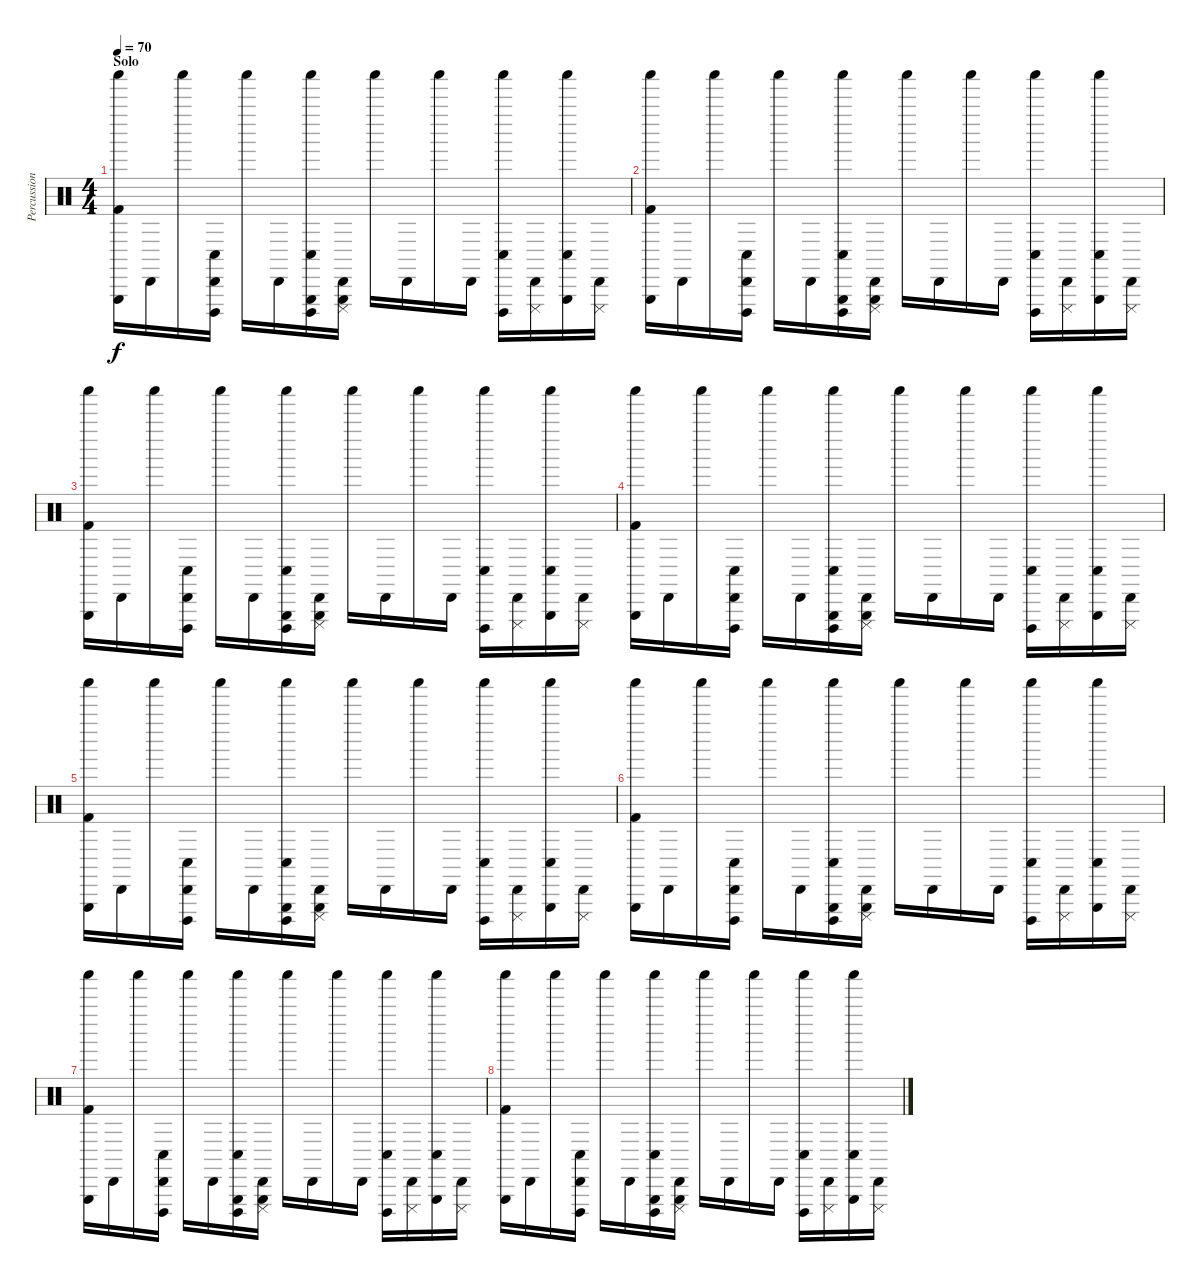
\track ("Percussion" "Percussion") {instrument percussion}
\staff {score}
\articulation defaults
\ts (4 4)
\section ("" "Solo")
\tempo 70
\clef neutral
\ks c
("Triangle (hit)" "Shaker (hit)" "Kick (hit) 2").16{dy f} "Cabasa (hit)".16 "Shaker (hit)".16 ("Cabasa (hit)" "Cuica (open)" "Conga low (hit)").16 "Shaker (hit)".16 "Cabasa (hit)".16 ("Triangle (hit)" "Shaker (hit)" "Cuica (open)" "Conga low (hit)").16 ("Triangle (hit)" "Cabasa (hit)" "Cuica (mute)").16 "Shaker (hit)".16 "Cabasa (hit)".16 "Shaker (hit)".16 "Cabasa (hit)".16 ("Shaker (hit)" "Cuica (open)" "Conga low (hit)").16 ("Cabasa (hit)" "Cuica (mute)").16 ("Triangle (hit)" "Shaker (hit)" "Conga low (hit)").16 ("Cabasa (hit)" "Cuica (mute)").16 |
("Triangle (hit)" "Shaker (hit)" "Kick (hit) 2").16 "Cabasa (hit)".16 "Shaker (hit)".16 ("Cabasa (hit)" "Cuica (open)" "Conga low (hit)").16 "Shaker (hit)".16 "Cabasa (hit)".16 ("Triangle (hit)" "Shaker (hit)" "Cuica (open)" "Conga low (hit)").16 ("Triangle (hit)" "Cabasa (hit)" "Cuica (mute)").16 "Shaker (hit)".16 "Cabasa (hit)".16 "Shaker (hit)".16 "Cabasa (hit)".16 ("Shaker (hit)" "Cuica (open)" "Conga low (hit)").16 ("Cabasa (hit)" "Cuica (mute)").16 ("Triangle (hit)" "Shaker (hit)" "Conga low (hit)").16 ("Cabasa (hit)" "Cuica (mute)").16 |
("Triangle (hit)" "Shaker (hit)" "Kick (hit) 2").16 "Cabasa (hit)".16 "Shaker (hit)".16 ("Cabasa (hit)" "Cuica (open)" "Conga low (hit)").16 "Shaker (hit)".16 "Cabasa (hit)".16 ("Triangle (hit)" "Shaker (hit)" "Cuica (open)" "Conga low (hit)").16 ("Triangle (hit)" "Cabasa (hit)" "Cuica (mute)").16 "Shaker (hit)".16 "Cabasa (hit)".16 "Shaker (hit)".16 "Cabasa (hit)".16 ("Shaker (hit)" "Cuica (open)" "Conga low (hit)").16 ("Cabasa (hit)" "Cuica (mute)").16 ("Triangle (hit)" "Shaker (hit)" "Conga low (hit)").16 ("Cabasa (hit)" "Cuica (mute)").16 |
("Triangle (hit)" "Shaker (hit)" "Kick (hit) 2").16 "Cabasa (hit)".16 "Shaker (hit)".16 ("Cabasa (hit)" "Cuica (open)" "Conga low (hit)").16 "Shaker (hit)".16 "Cabasa (hit)".16 ("Triangle (hit)" "Shaker (hit)" "Cuica (open)" "Conga low (hit)").16 ("Triangle (hit)" "Cabasa (hit)" "Cuica (mute)").16 "Shaker (hit)".16 "Cabasa (hit)".16 "Shaker (hit)".16 "Cabasa (hit)".16 ("Shaker (hit)" "Cuica (open)" "Conga low (hit)").16 ("Cabasa (hit)" "Cuica (mute)").16 ("Triangle (hit)" "Shaker (hit)" "Conga low (hit)").16 ("Cabasa (hit)" "Cuica (mute)").16 |
("Triangle (hit)" "Shaker (hit)" "Kick (hit) 2").16 "Cabasa (hit)".16 "Shaker (hit)".16 ("Cabasa (hit)" "Cuica (open)" "Conga low (hit)").16 "Shaker (hit)".16 "Cabasa (hit)".16 ("Triangle (hit)" "Shaker (hit)" "Cuica (open)" "Conga low (hit)").16 ("Triangle (hit)" "Cabasa (hit)" "Cuica (mute)").16 "Shaker (hit)".16 "Cabasa (hit)".16 "Shaker (hit)".16 "Cabasa (hit)".16 ("Shaker (hit)" "Cuica (open)" "Conga low (hit)").16 ("Cabasa (hit)" "Cuica (mute)").16 ("Triangle (hit)" "Shaker (hit)" "Conga low (hit)").16 ("Cabasa (hit)" "Cuica (mute)").16 |
("Triangle (hit)" "Shaker (hit)" "Kick (hit) 2").16 "Cabasa (hit)".16 "Shaker (hit)".16 ("Cabasa (hit)" "Cuica (open)" "Conga low (hit)").16 "Shaker (hit)".16 "Cabasa (hit)".16 ("Triangle (hit)" "Shaker (hit)" "Cuica (open)" "Conga low (hit)").16 ("Triangle (hit)" "Cabasa (hit)" "Cuica (mute)").16 "Shaker (hit)".16 "Cabasa (hit)".16 "Shaker (hit)".16 "Cabasa (hit)".16 ("Shaker (hit)" "Cuica (open)" "Conga low (hit)").16 ("Cabasa (hit)" "Cuica (mute)").16 ("Triangle (hit)" "Shaker (hit)" "Conga low (hit)").16 ("Cabasa (hit)" "Cuica (mute)").16 |
("Triangle (hit)" "Shaker (hit)" "Kick (hit) 2").16 "Cabasa (hit)".16 "Shaker (hit)".16 ("Cabasa (hit)" "Cuica (open)" "Conga low (hit)").16 "Shaker (hit)".16 "Cabasa (hit)".16 ("Triangle (hit)" "Shaker (hit)" "Cuica (open)" "Conga low (hit)").16 ("Triangle (hit)" "Cabasa (hit)" "Cuica (mute)").16 "Shaker (hit)".16 "Cabasa (hit)".16 "Shaker (hit)".16 "Cabasa (hit)".16 ("Shaker (hit)" "Cuica (open)" "Conga low (hit)").16 ("Cabasa (hit)" "Cuica (mute)").16 ("Triangle (hit)" "Shaker (hit)" "Conga low (hit)").16 ("Cabasa (hit)" "Cuica (mute)").16 |
("Triangle (hit)" "Shaker (hit)" "Kick (hit) 2").16 "Cabasa (hit)".16 "Shaker (hit)".16 ("Cabasa (hit)" "Cuica (open)" "Conga low (hit)").16 "Shaker (hit)".16 "Cabasa (hit)".16 ("Triangle (hit)" "Shaker (hit)" "Cuica (open)" "Conga low (hit)").16 ("Triangle (hit)" "Cabasa (hit)" "Cuica (mute)").16 "Shaker (hit)".16 "Cabasa (hit)".16 "Shaker (hit)".16 "Cabasa (hit)".16 ("Shaker (hit)" "Cuica (open)" "Conga low (hit)").16 ("Cabasa (hit)" "Cuica (mute)").16 ("Triangle (hit)" "Shaker (hit)" "Conga low (hit)").16 ("Cabasa (hit)" "Cuica (mute)").16
